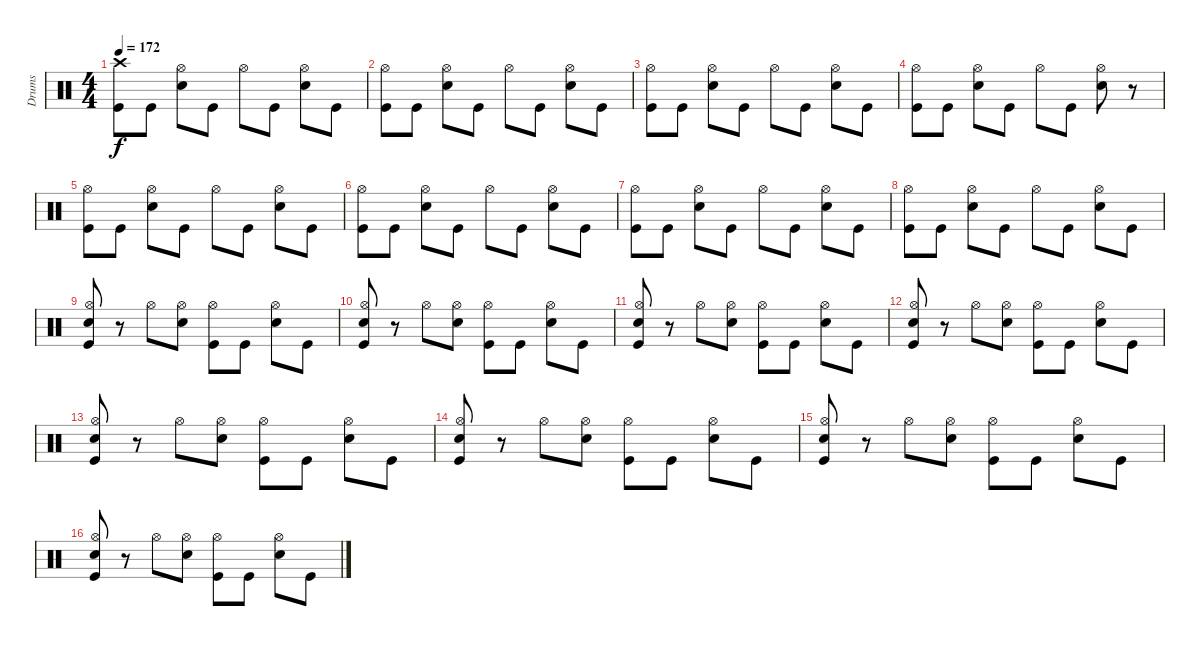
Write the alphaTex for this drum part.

\track ("Drums" "Drums") {instrument percussion}
\staff {score}
\articulation defaults
\ts (4 4)
\tempo 172
\clef neutral
\ks c
("Crash high (hit)" "Kick (hit)").8{dy f} "Kick (hit)".8 ("Hi-Hat (open)" "Snare (hit) 2").8 "Kick (hit)".8 "Hi-Hat (open)".8 "Kick (hit)".8 ("Hi-Hat (open)" "Snare (hit) 2").8 "Kick (hit)".8 |
("Hi-Hat (open)" "Kick (hit)").8 "Kick (hit)".8 ("Hi-Hat (open)" "Snare (hit) 2").8 "Kick (hit)".8 "Hi-Hat (open)".8 "Kick (hit)".8 ("Hi-Hat (open)" "Snare (hit) 2").8 "Kick (hit)".8 |
("Hi-Hat (open)" "Kick (hit)").8 "Kick (hit)".8 ("Hi-Hat (open)" "Snare (hit) 2").8 "Kick (hit)".8 "Hi-Hat (open)".8 "Kick (hit)".8 ("Hi-Hat (open)" "Snare (hit) 2").8 "Kick (hit)".8 |
("Hi-Hat (open)" "Kick (hit)").8 "Kick (hit)".8 ("Hi-Hat (open)" "Snare (hit) 2").8 "Kick (hit)".8 "Hi-Hat (open)".8 "Kick (hit)".8 ("Hi-Hat (open)" "Snare (hit) 2").8 r.8 |
("Hi-Hat (open)" "Kick (hit)").8 "Kick (hit)".8 ("Hi-Hat (open)" "Snare (hit) 2").8 "Kick (hit)".8 "Hi-Hat (open)".8 "Kick (hit)".8 ("Hi-Hat (open)" "Snare (hit) 2").8 "Kick (hit)".8 |
("Hi-Hat (open)" "Kick (hit)").8 "Kick (hit)".8 ("Hi-Hat (open)" "Snare (hit) 2").8 "Kick (hit)".8 "Hi-Hat (open)".8 "Kick (hit)".8 ("Hi-Hat (open)" "Snare (hit) 2").8 "Kick (hit)".8 |
("Hi-Hat (open)" "Kick (hit)").8 "Kick (hit)".8 ("Hi-Hat (open)" "Snare (hit) 2").8 "Kick (hit)".8 "Hi-Hat (open)".8 "Kick (hit)".8 ("Hi-Hat (open)" "Snare (hit) 2").8 "Kick (hit)".8 |
("Hi-Hat (open)" "Kick (hit)").8 "Kick (hit)".8 ("Hi-Hat (open)" "Snare (hit) 2").8 "Kick (hit)".8 "Hi-Hat (open)".8 "Kick (hit)".8 ("Hi-Hat (open)" "Snare (hit) 2").8 "Kick (hit)".8 |
("Hi-Hat (open)" "Snare (hit) 2" "Kick (hit)").8 r.8 "Hi-Hat (open)".8 ("Hi-Hat (open)" "Snare (hit) 2").8 ("Hi-Hat (open)" "Kick (hit)").8 "Kick (hit)".8 ("Hi-Hat (open)" "Snare (hit) 2").8 "Kick (hit)".8 |
("Hi-Hat (open)" "Snare (hit) 2" "Kick (hit)").8 r.8 "Hi-Hat (open)".8 ("Hi-Hat (open)" "Snare (hit) 2").8 ("Hi-Hat (open)" "Kick (hit)").8 "Kick (hit)".8 ("Hi-Hat (open)" "Snare (hit) 2").8 "Kick (hit)".8 |
("Hi-Hat (open)" "Snare (hit) 2" "Kick (hit)").8 r.8 "Hi-Hat (open)".8 ("Hi-Hat (open)" "Snare (hit) 2").8 ("Hi-Hat (open)" "Kick (hit)").8 "Kick (hit)".8 ("Hi-Hat (open)" "Snare (hit) 2").8 "Kick (hit)".8 |
("Hi-Hat (open)" "Snare (hit) 2" "Kick (hit)").8 r.8 "Hi-Hat (open)".8 ("Hi-Hat (open)" "Snare (hit) 2").8 ("Hi-Hat (open)" "Kick (hit)").8 "Kick (hit)".8 ("Hi-Hat (open)" "Snare (hit) 2").8 "Kick (hit)".8 |
("Hi-Hat (open)" "Snare (hit) 2" "Kick (hit)").8 r.8 "Hi-Hat (open)".8 ("Hi-Hat (open)" "Snare (hit) 2").8 ("Hi-Hat (open)" "Kick (hit)").8 "Kick (hit)".8 ("Hi-Hat (open)" "Snare (hit) 2").8 "Kick (hit)".8 |
("Hi-Hat (open)" "Snare (hit) 2" "Kick (hit)").8 r.8 "Hi-Hat (open)".8 ("Hi-Hat (open)" "Snare (hit) 2").8 ("Hi-Hat (open)" "Kick (hit)").8 "Kick (hit)".8 ("Hi-Hat (open)" "Snare (hit) 2").8 "Kick (hit)".8 |
("Hi-Hat (open)" "Snare (hit) 2" "Kick (hit)").8 r.8 "Hi-Hat (open)".8 ("Hi-Hat (open)" "Snare (hit) 2").8 ("Hi-Hat (open)" "Kick (hit)").8 "Kick (hit)".8 ("Hi-Hat (open)" "Snare (hit) 2").8 "Kick (hit)".8 |
("Hi-Hat (open)" "Snare (hit) 2" "Kick (hit)").8 r.8 "Hi-Hat (open)".8 ("Hi-Hat (open)" "Snare (hit) 2").8 ("Hi-Hat (open)" "Kick (hit)").8 "Kick (hit)".8 ("Hi-Hat (open)" "Snare (hit) 2").8 "Kick (hit)".8
